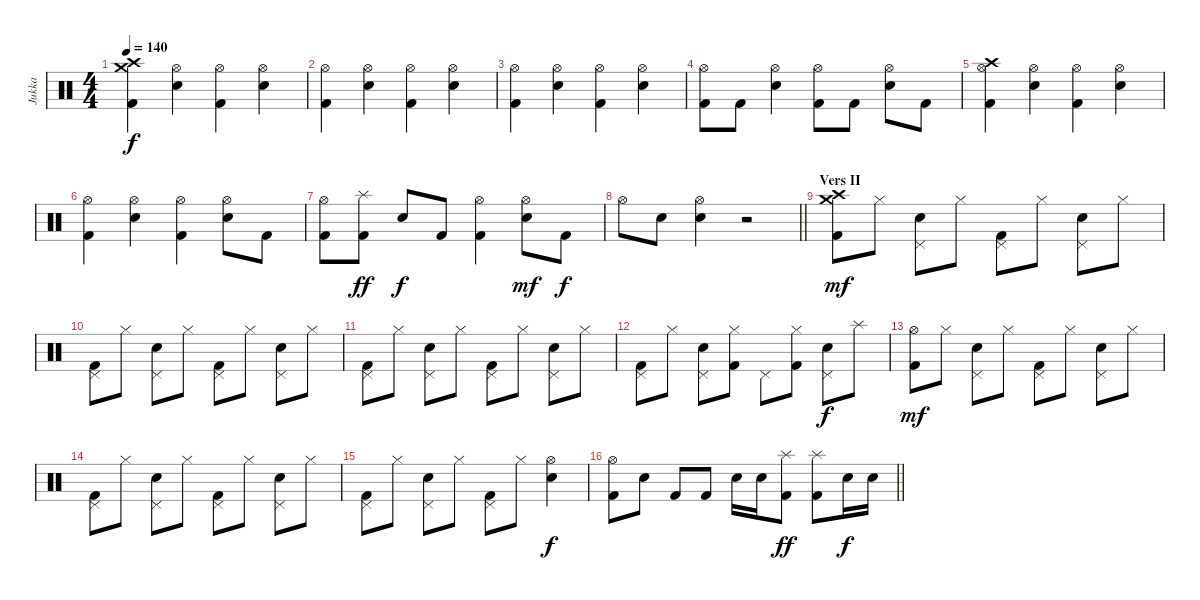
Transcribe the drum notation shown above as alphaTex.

\track ("Jukka" "Jukka") {instrument percussion}
\staff {score}
\articulation defaults
\ts (4 4)
\tempo 140
\clef neutral
\ks aminor
("Crash medium (hit)" "Crash high (hit)" "Kick (hit) 2").4{dy f} ("Hi-Hat (open)" "Electric Snare (hit)").4 ("Hi-Hat (open)" "Kick (hit) 2").4 ("Hi-Hat (open)" "Electric Snare (hit)").4 |
("Hi-Hat (open)" "Kick (hit) 2").4 ("Hi-Hat (open)" "Electric Snare (hit)").4 ("Hi-Hat (open)" "Kick (hit) 2").4 ("Hi-Hat (open)" "Electric Snare (hit)").4 |
("Hi-Hat (open)" "Kick (hit) 2").4 ("Hi-Hat (open)" "Electric Snare (hit)").4 ("Hi-Hat (open)" "Kick (hit) 2").4 ("Hi-Hat (open)" "Electric Snare (hit)").4 |
("Hi-Hat (open)" "Kick (hit) 2").8 "Kick (hit) 2".8 ("Hi-Hat (open)" "Electric Snare (hit)").4 ("Hi-Hat (open)" "Kick (hit) 2").8 "Kick (hit) 2".8 ("Hi-Hat (open)" "Electric Snare (hit)").8 "Kick (hit) 2".8 |
("Crash high (hit)" "Hi-Hat (open)" "Kick (hit) 2").4 ("Hi-Hat (open)" "Electric Snare (hit)").4 ("Hi-Hat (open)" "Kick (hit) 2").4 ("Hi-Hat (open)" "Electric Snare (hit)").4 |
("Hi-Hat (open)" "Kick (hit) 2").4 ("Hi-Hat (open)" "Electric Snare (hit)").4 ("Hi-Hat (open)" "Kick (hit) 2").4 ("Hi-Hat (open)" "Electric Snare (hit)").8 "Kick (hit) 2".8 |
("Hi-Hat (open)" "Kick (hit) 2").8 ("Splash (hit)" "Kick (hit) 2").8{dy ff} "Electric Snare (hit)".8{dy f} "Kick (hit) 2".8 ("Hi-Hat (open)" "Kick (hit) 2").4 ("Hi-Hat (open)" "Electric Snare (hit)").8{dy mf} "Kick (hit) 2".8{dy f} |
\barLineRight lightlight "Hi-Hat (open)".8 "Electric Snare (hit)".8
("Hi-Hat (open)" "Electric Snare (hit)").4 r.2 |
\section ("" "Vers II")
("Crash medium (hit)" "Crash high (hit)" "Kick (hit) 2").8{dy mf} "Hi-Hat (closed)".8 ("Pedal Hi-Hat (hit)" "Electric Snare (hit)").8 "Hi-Hat (closed)".8 ("Pedal Hi-Hat (hit)" "Kick (hit) 2").8 "Hi-Hat (closed)".8 ("Pedal Hi-Hat (hit)" "Electric Snare (hit)").8 "Hi-Hat (closed)".8 |
("Pedal Hi-Hat (hit)" "Kick (hit) 2").8 "Hi-Hat (closed)".8 ("Pedal Hi-Hat (hit)" "Electric Snare (hit)").8 "Hi-Hat (closed)".8 ("Pedal Hi-Hat (hit)" "Kick (hit) 2").8 "Hi-Hat (closed)".8 ("Pedal Hi-Hat (hit)" "Electric Snare (hit)").8 "Hi-Hat (closed)".8 |
("Pedal Hi-Hat (hit)" "Kick (hit) 2").8 "Hi-Hat (closed)".8 ("Pedal Hi-Hat (hit)" "Electric Snare (hit)").8 "Hi-Hat (closed)".8 ("Pedal Hi-Hat (hit)" "Kick (hit) 2").8 "Hi-Hat (closed)".8 ("Pedal Hi-Hat (hit)" "Electric Snare (hit)").8 "Hi-Hat (closed)".8 |
("Pedal Hi-Hat (hit)" "Kick (hit) 2").8 "Hi-Hat (closed)".8 ("Pedal Hi-Hat (hit)" "Electric Snare (hit)").8 ("Hi-Hat (closed)" "Kick (hit) 2").8 "Pedal Hi-Hat (hit)".8 ("Hi-Hat (closed)" "Kick (hit) 2").8 ("Pedal Hi-Hat (hit)" "Electric Snare (hit)").8{dy f} "Splash (hit)".8 |
("Hi-Hat (open)" "Kick (hit) 2").8{dy mf} "Hi-Hat (closed)".8 ("Pedal Hi-Hat (hit)" "Electric Snare (hit)").8 "Hi-Hat (closed)".8 ("Pedal Hi-Hat (hit)" "Kick (hit) 2").8 "Hi-Hat (closed)".8 ("Pedal Hi-Hat (hit)" "Electric Snare (hit)").8 "Hi-Hat (closed)".8 |
("Pedal Hi-Hat (hit)" "Kick (hit) 2").8 "Hi-Hat (closed)".8 ("Pedal Hi-Hat (hit)" "Electric Snare (hit)").8 "Hi-Hat (closed)".8 ("Pedal Hi-Hat (hit)" "Kick (hit) 2").8 "Hi-Hat (closed)".8 ("Pedal Hi-Hat (hit)" "Electric Snare (hit)").8 "Hi-Hat (closed)".8 |
("Pedal Hi-Hat (hit)" "Kick (hit) 2").8 "Hi-Hat (closed)".8 ("Pedal Hi-Hat (hit)" "Electric Snare (hit)").8 "Hi-Hat (closed)".8 ("Pedal Hi-Hat (hit)" "Kick (hit) 2").8 "Hi-Hat (closed)".8 ("Hi-Hat (open)" "Electric Snare (hit)").4{dy f} |
\barLineRight lightlight
("Hi-Hat (open)" "Kick (hit) 2").8 "Electric Snare (hit)".8 "Kick (hit) 2".8 "Kick (hit) 2".8 "Electric Snare (hit)".16 "Electric Snare (hit)".16 ("Splash (hit)" "Kick (hit) 2").8{dy ff} ("Splash (hit)" "Kick (hit) 2").8 "Electric Snare (hit)".16{dy f} "Electric Snare (hit)".16
